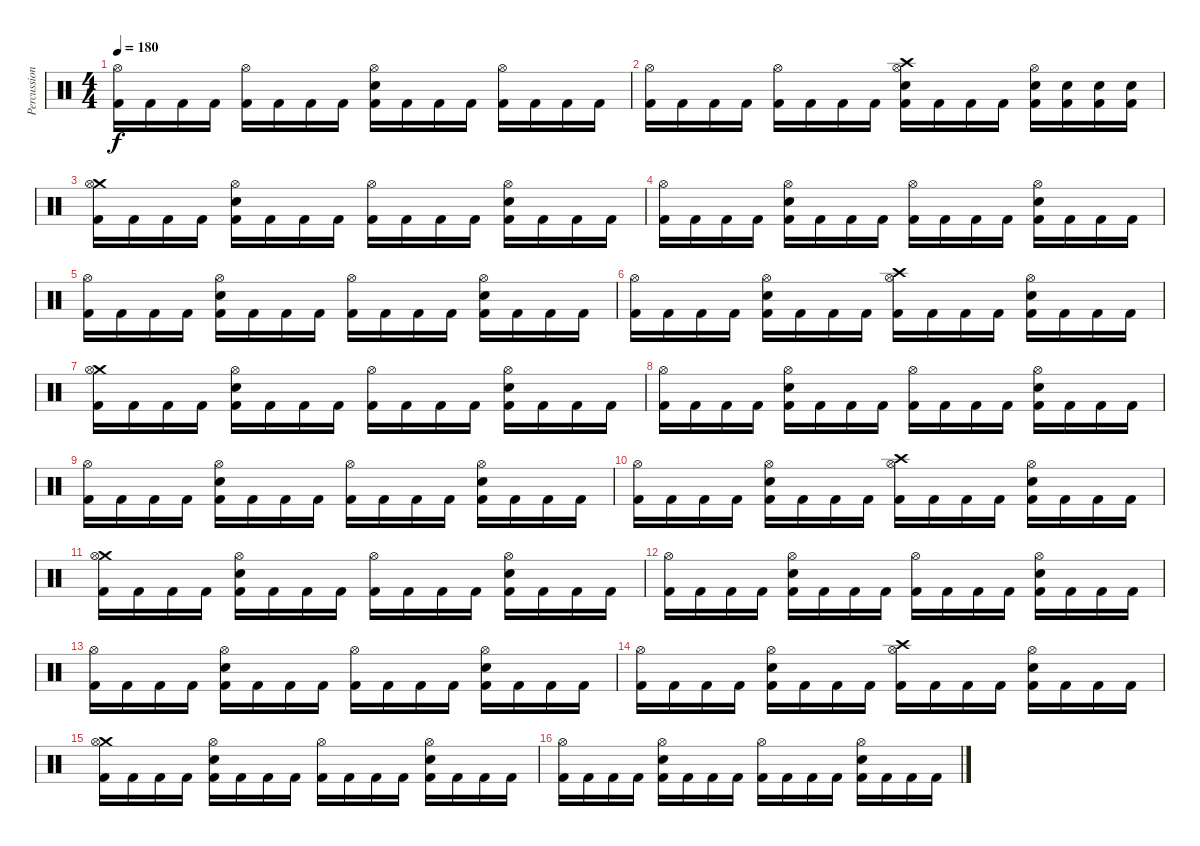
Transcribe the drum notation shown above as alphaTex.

\track ("Percussion" "Percussion") {instrument percussion}
\staff {score}
\articulation defaults
\ts (4 4)
\tempo 180
\clef neutral
\ks c
("Hi-Hat (open)" "Kick (hit) 2").16{dy f} "Kick (hit) 2".16 "Kick (hit) 2".16 "Kick (hit) 2".16 ("Hi-Hat (open)" "Kick (hit) 2").16 "Kick (hit) 2".16 "Kick (hit) 2".16 "Kick (hit) 2".16 ("Hi-Hat (open)" "Electric Snare (hit)" "Kick (hit) 2").16 "Kick (hit) 2".16 "Kick (hit) 2".16 "Kick (hit) 2".16 ("Hi-Hat (open)" "Kick (hit) 2").16 "Kick (hit) 2".16 "Kick (hit) 2".16 "Kick (hit) 2".16 |
("Hi-Hat (open)" "Kick (hit) 2").16 "Kick (hit) 2".16 "Kick (hit) 2".16 "Kick (hit) 2".16 ("Hi-Hat (open)" "Kick (hit) 2").16 "Kick (hit) 2".16 "Kick (hit) 2".16 "Kick (hit) 2".16 ("Crash high (hit)" "Hi-Hat (open)" "Electric Snare (hit)" "Kick (hit) 2").16 "Kick (hit) 2".16 "Kick (hit) 2".16 "Kick (hit) 2".16 ("Hi-Hat (open)" "Electric Snare (hit)" "Kick (hit) 2").16 ("Electric Snare (hit)" "Kick (hit) 2").16 ("Electric Snare (hit)" "Kick (hit) 2").16 ("Electric Snare (hit)" "Kick (hit) 2").16 |
("Crash medium (hit)" "Hi-Hat (open)" "Kick (hit) 2").16 "Kick (hit) 2".16 "Kick (hit) 2".16 "Kick (hit) 2".16 ("Hi-Hat (open)" "Electric Snare (hit)" "Kick (hit) 2").16 "Kick (hit) 2".16 "Kick (hit) 2".16 "Kick (hit) 2".16 ("Hi-Hat (open)" "Kick (hit) 2").16 "Kick (hit) 2".16 "Kick (hit) 2".16 "Kick (hit) 2".16 ("Hi-Hat (open)" "Electric Snare (hit)" "Kick (hit) 2").16 "Kick (hit) 2".16 "Kick (hit) 2".16 "Kick (hit) 2".16 |
("Hi-Hat (open)" "Kick (hit) 2").16 "Kick (hit) 2".16 "Kick (hit) 2".16 "Kick (hit) 2".16 ("Hi-Hat (open)" "Electric Snare (hit)" "Kick (hit) 2").16 "Kick (hit) 2".16 "Kick (hit) 2".16 "Kick (hit) 2".16 ("Hi-Hat (open)" "Kick (hit) 2").16 "Kick (hit) 2".16 "Kick (hit) 2".16 "Kick (hit) 2".16 ("Hi-Hat (open)" "Electric Snare (hit)" "Kick (hit) 2").16 "Kick (hit) 2".16 "Kick (hit) 2".16 "Kick (hit) 2".16 |
("Hi-Hat (open)" "Kick (hit) 2").16 "Kick (hit) 2".16 "Kick (hit) 2".16 "Kick (hit) 2".16 ("Hi-Hat (open)" "Electric Snare (hit)" "Kick (hit) 2").16 "Kick (hit) 2".16 "Kick (hit) 2".16 "Kick (hit) 2".16 ("Hi-Hat (open)" "Kick (hit) 2").16 "Kick (hit) 2".16 "Kick (hit) 2".16 "Kick (hit) 2".16 ("Hi-Hat (open)" "Electric Snare (hit)" "Kick (hit) 2").16 "Kick (hit) 2".16 "Kick (hit) 2".16 "Kick (hit) 2".16 |
("Hi-Hat (open)" "Kick (hit) 2").16 "Kick (hit) 2".16 "Kick (hit) 2".16 "Kick (hit) 2".16 ("Hi-Hat (open)" "Electric Snare (hit)" "Kick (hit) 2").16 "Kick (hit) 2".16 "Kick (hit) 2".16 "Kick (hit) 2".16 ("Crash high (hit)" "Hi-Hat (open)" "Kick (hit) 2").16 "Kick (hit) 2".16 "Kick (hit) 2".16 "Kick (hit) 2".16 ("Hi-Hat (open)" "Electric Snare (hit)" "Kick (hit) 2").16 "Kick (hit) 2".16 "Kick (hit) 2".16 "Kick (hit) 2".16 |
("Crash medium (hit)" "Hi-Hat (open)" "Kick (hit) 2").16 "Kick (hit) 2".16 "Kick (hit) 2".16 "Kick (hit) 2".16 ("Hi-Hat (open)" "Electric Snare (hit)" "Kick (hit) 2").16 "Kick (hit) 2".16 "Kick (hit) 2".16 "Kick (hit) 2".16 ("Hi-Hat (open)" "Kick (hit) 2").16 "Kick (hit) 2".16 "Kick (hit) 2".16 "Kick (hit) 2".16 ("Hi-Hat (open)" "Electric Snare (hit)" "Kick (hit) 2").16 "Kick (hit) 2".16 "Kick (hit) 2".16 "Kick (hit) 2".16 |
("Hi-Hat (open)" "Kick (hit) 2").16 "Kick (hit) 2".16 "Kick (hit) 2".16 "Kick (hit) 2".16 ("Hi-Hat (open)" "Electric Snare (hit)" "Kick (hit) 2").16 "Kick (hit) 2".16 "Kick (hit) 2".16 "Kick (hit) 2".16 ("Hi-Hat (open)" "Kick (hit) 2").16 "Kick (hit) 2".16 "Kick (hit) 2".16 "Kick (hit) 2".16 ("Hi-Hat (open)" "Electric Snare (hit)" "Kick (hit) 2").16 "Kick (hit) 2".16 "Kick (hit) 2".16 "Kick (hit) 2".16 |
("Hi-Hat (open)" "Kick (hit) 2").16 "Kick (hit) 2".16 "Kick (hit) 2".16 "Kick (hit) 2".16 ("Hi-Hat (open)" "Electric Snare (hit)" "Kick (hit) 2").16 "Kick (hit) 2".16 "Kick (hit) 2".16 "Kick (hit) 2".16 ("Hi-Hat (open)" "Kick (hit) 2").16 "Kick (hit) 2".16 "Kick (hit) 2".16 "Kick (hit) 2".16 ("Hi-Hat (open)" "Electric Snare (hit)" "Kick (hit) 2").16 "Kick (hit) 2".16 "Kick (hit) 2".16 "Kick (hit) 2".16 |
("Hi-Hat (open)" "Kick (hit) 2").16 "Kick (hit) 2".16 "Kick (hit) 2".16 "Kick (hit) 2".16 ("Hi-Hat (open)" "Electric Snare (hit)" "Kick (hit) 2").16 "Kick (hit) 2".16 "Kick (hit) 2".16 "Kick (hit) 2".16 ("Crash high (hit)" "Hi-Hat (open)" "Kick (hit) 2").16 "Kick (hit) 2".16 "Kick (hit) 2".16 "Kick (hit) 2".16 ("Hi-Hat (open)" "Electric Snare (hit)" "Kick (hit) 2").16 "Kick (hit) 2".16 "Kick (hit) 2".16 "Kick (hit) 2".16 |
("Crash medium (hit)" "Hi-Hat (open)" "Kick (hit) 2").16 "Kick (hit) 2".16 "Kick (hit) 2".16 "Kick (hit) 2".16 ("Hi-Hat (open)" "Electric Snare (hit)" "Kick (hit) 2").16 "Kick (hit) 2".16 "Kick (hit) 2".16 "Kick (hit) 2".16 ("Hi-Hat (open)" "Kick (hit) 2").16 "Kick (hit) 2".16 "Kick (hit) 2".16 "Kick (hit) 2".16 ("Hi-Hat (open)" "Electric Snare (hit)" "Kick (hit) 2").16 "Kick (hit) 2".16 "Kick (hit) 2".16 "Kick (hit) 2".16 |
("Hi-Hat (open)" "Kick (hit) 2").16 "Kick (hit) 2".16 "Kick (hit) 2".16 "Kick (hit) 2".16 ("Hi-Hat (open)" "Electric Snare (hit)" "Kick (hit) 2").16 "Kick (hit) 2".16 "Kick (hit) 2".16 "Kick (hit) 2".16 ("Hi-Hat (open)" "Kick (hit) 2").16 "Kick (hit) 2".16 "Kick (hit) 2".16 "Kick (hit) 2".16 ("Hi-Hat (open)" "Electric Snare (hit)" "Kick (hit) 2").16 "Kick (hit) 2".16 "Kick (hit) 2".16 "Kick (hit) 2".16 |
("Hi-Hat (open)" "Kick (hit) 2").16 "Kick (hit) 2".16 "Kick (hit) 2".16 "Kick (hit) 2".16 ("Hi-Hat (open)" "Electric Snare (hit)" "Kick (hit) 2").16 "Kick (hit) 2".16 "Kick (hit) 2".16 "Kick (hit) 2".16 ("Hi-Hat (open)" "Kick (hit) 2").16 "Kick (hit) 2".16 "Kick (hit) 2".16 "Kick (hit) 2".16 ("Hi-Hat (open)" "Electric Snare (hit)" "Kick (hit) 2").16 "Kick (hit) 2".16 "Kick (hit) 2".16 "Kick (hit) 2".16 |
("Hi-Hat (open)" "Kick (hit) 2").16 "Kick (hit) 2".16 "Kick (hit) 2".16 "Kick (hit) 2".16 ("Hi-Hat (open)" "Electric Snare (hit)" "Kick (hit) 2").16 "Kick (hit) 2".16 "Kick (hit) 2".16 "Kick (hit) 2".16 ("Crash high (hit)" "Hi-Hat (open)" "Kick (hit) 2").16 "Kick (hit) 2".16 "Kick (hit) 2".16 "Kick (hit) 2".16 ("Hi-Hat (open)" "Electric Snare (hit)" "Kick (hit) 2").16 "Kick (hit) 2".16 "Kick (hit) 2".16 "Kick (hit) 2".16 |
("Crash medium (hit)" "Hi-Hat (open)" "Kick (hit) 2").16 "Kick (hit) 2".16 "Kick (hit) 2".16 "Kick (hit) 2".16 ("Hi-Hat (open)" "Electric Snare (hit)" "Kick (hit) 2").16 "Kick (hit) 2".16 "Kick (hit) 2".16 "Kick (hit) 2".16 ("Hi-Hat (open)" "Kick (hit) 2").16 "Kick (hit) 2".16 "Kick (hit) 2".16 "Kick (hit) 2".16 ("Hi-Hat (open)" "Electric Snare (hit)" "Kick (hit) 2").16 "Kick (hit) 2".16 "Kick (hit) 2".16 "Kick (hit) 2".16 |
("Hi-Hat (open)" "Kick (hit) 2").16 "Kick (hit) 2".16 "Kick (hit) 2".16 "Kick (hit) 2".16 ("Hi-Hat (open)" "Electric Snare (hit)" "Kick (hit) 2").16 "Kick (hit) 2".16 "Kick (hit) 2".16 "Kick (hit) 2".16 ("Hi-Hat (open)" "Kick (hit) 2").16 "Kick (hit) 2".16 "Kick (hit) 2".16 "Kick (hit) 2".16 ("Hi-Hat (open)" "Electric Snare (hit)" "Kick (hit) 2").16 "Kick (hit) 2".16 "Kick (hit) 2".16 "Kick (hit) 2".16
